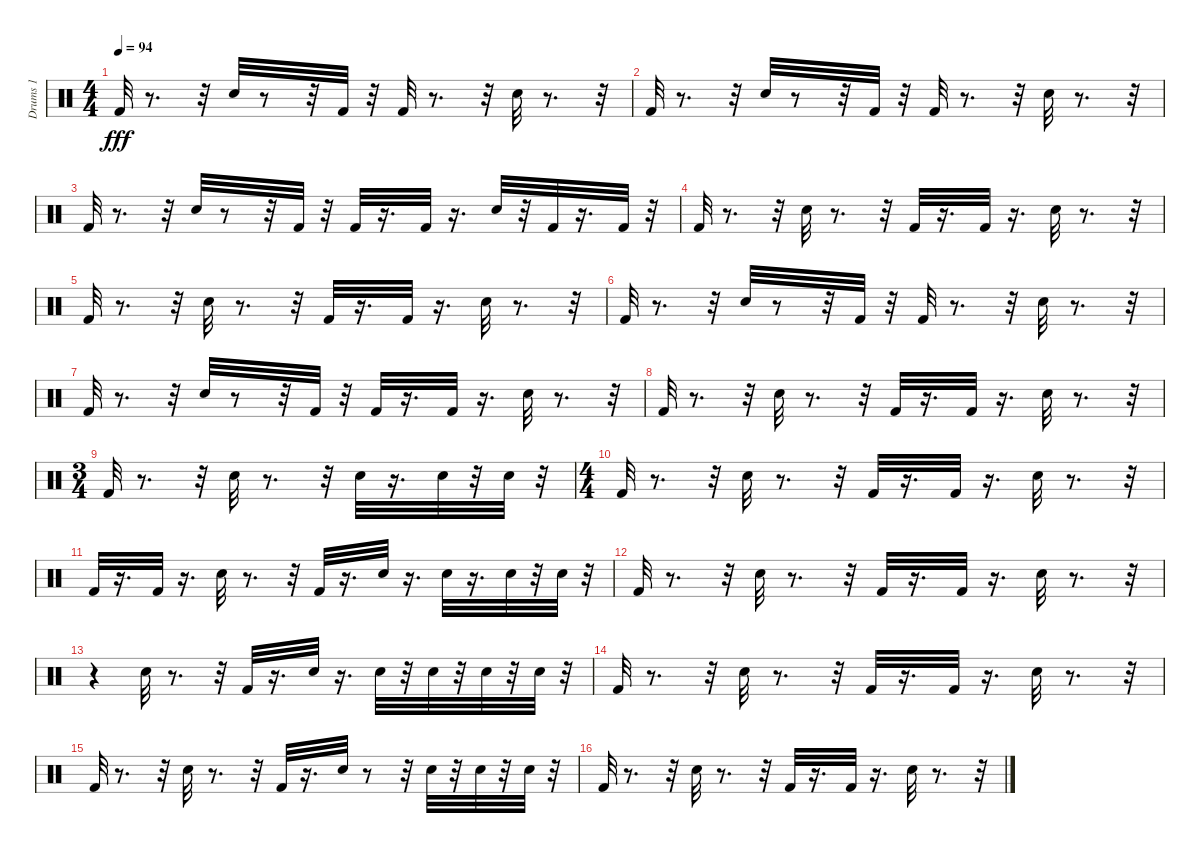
\track ("Drums 1" "Drums 1") {instrument percussion}
\staff {score}
\articulation defaults
\ts (4 4)
\tempo 94
\clef neutral
\ks c "Kick (hit) 2".32{dy fff}
r.8{d} r.32 "Electric Snare (hit)".32 r.8 r.32 "Kick (hit) 2".32 r.32 "Kick (hit) 2".32 r.8{d} r.32 "Electric Snare (hit)".32 r.8{d} r.32 |
"Kick (hit) 2".32 r.8{d} r.32 "Electric Snare (hit)".32 r.8 r.32 "Kick (hit) 2".32 r.32 "Kick (hit) 2".32 r.8{d} r.32 "Electric Snare (hit)".32 r.8{d} r.32 |
"Kick (hit) 2".32 r.8{d} r.32 "Electric Snare (hit)".32 r.8 r.32 "Kick (hit) 2".32 r.32 "Kick (hit) 2".32 r.16{d} "Kick (hit) 2".32 r.16{d} "Electric Snare (hit)".32 r.32 "Kick (hit) 2".32 r.16{d} "Kick (hit) 2".32 r.32 |
"Kick (hit) 2".32 r.8{d} r.32 "Electric Snare (hit)".32 r.8{d} r.32 "Kick (hit) 2".32 r.16{d} "Kick (hit) 2".32 r.16{d} "Electric Snare (hit)".32 r.8{d} r.32 |
"Kick (hit) 2".32 r.8{d} r.32 "Electric Snare (hit)".32 r.8{d} r.32 "Kick (hit) 2".32 r.16{d} "Kick (hit) 2".32 r.16{d} "Electric Snare (hit)".32 r.8{d} r.32 |
"Kick (hit) 2".32 r.8{d} r.32 "Electric Snare (hit)".32 r.8 r.32 "Kick (hit) 2".32 r.32 "Kick (hit) 2".32 r.8{d} r.32 "Electric Snare (hit)".32 r.8{d} r.32 |
"Kick (hit) 2".32 r.8{d} r.32 "Electric Snare (hit)".32 r.8 r.32 "Kick (hit) 2".32 r.32 "Kick (hit) 2".32 r.16{d} "Kick (hit) 2".32 r.16{d} "Electric Snare (hit)".32 r.8{d} r.32 |
"Kick (hit) 2".32 r.8{d} r.32 "Electric Snare (hit)".32 r.8{d} r.32 "Kick (hit) 2".32 r.16{d} "Kick (hit) 2".32 r.16{d} "Electric Snare (hit)".32 r.8{d} r.32 |
\ts (3 4)
"Kick (hit) 2".32 r.8{d} r.32 "Electric Snare (hit)".32 r.8{d} r.32 "Electric Snare (hit)".32 r.16{d} "Electric Snare (hit)".32 r.32 "Electric Snare (hit)".32 r.32 |
\ts (4 4)
"Kick (hit) 2".32 r.8{d} r.32 "Electric Snare (hit)".32 r.8{d} r.32 "Kick (hit) 2".32 r.16{d} "Kick (hit) 2".32 r.16{d} "Electric Snare (hit)".32 r.8{d} r.32 |
"Kick (hit) 2".32 r.16{d} "Kick (hit) 2".32 r.16{d} "Electric Snare (hit)".32 r.8{d} r.32 "Kick (hit) 2".32 r.16{d} "Electric Snare (hit)".32 r.16{d} "Electric Snare (hit)".32 r.16{d} "Electric Snare (hit)".32 r.32 "Electric Snare (hit)".32 r.32 |
"Kick (hit) 2".32 r.8{d} r.32 "Electric Snare (hit)".32 r.8{d} r.32 "Kick (hit) 2".32 r.16{d} "Kick (hit) 2".32 r.16{d} "Electric Snare (hit)".32 r.8{d} r.32 |
r.4 "Electric Snare (hit)".32 r.8{d} r.32 "Kick (hit) 2".32 r.16{d} "Electric Snare (hit)".32 r.16{d} "Electric Snare (hit)".32 r.32 "Electric Snare (hit)".32 r.32 "Electric Snare (hit)".32 r.32 "Electric Snare (hit)".32 r.32 |
"Kick (hit) 2".32 r.8{d} r.32 "Electric Snare (hit)".32 r.8{d} r.32 "Kick (hit) 2".32 r.16{d} "Kick (hit) 2".32 r.16{d} "Electric Snare (hit)".32 r.8{d} r.32 |
"Kick (hit) 2".32 r.8{d} r.32 "Electric Snare (hit)".32 r.8{d} r.32 "Kick (hit) 2".32 r.16{d} "Electric Snare (hit)".32 r.8 r.32 "Electric Snare (hit)".32 r.32 "Electric Snare (hit)".32 r.32 "Electric Snare (hit)".32 r.32 |
"Kick (hit) 2".32 r.8{d} r.32 "Electric Snare (hit)".32 r.8{d} r.32 "Kick (hit) 2".32 r.16{d} "Kick (hit) 2".32 r.16{d} "Electric Snare (hit)".32 r.8{d} r.32
